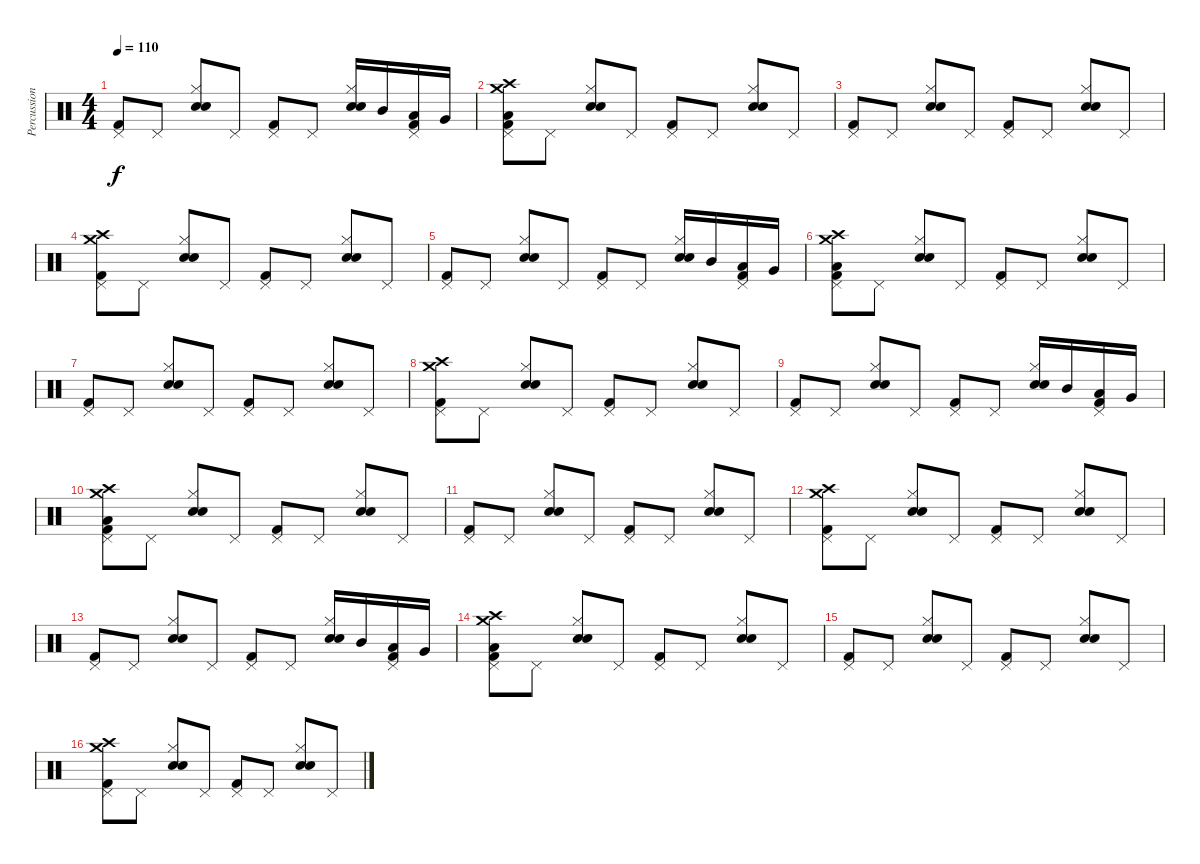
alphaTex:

\track ("Percussion" "Percussion") {instrument percussion}
\staff {score}
\articulation defaults
\ts (4 4)
\tempo 110
\clef neutral
\ks c
("Pedal Hi-Hat (hit)" "Kick (hit) 2").8{dy f} "Pedal Hi-Hat (hit)".8 ("Electric Snare (hit)" "Hi-Hat (closed)" "Snare (hit) 2").8 "Pedal Hi-Hat (hit)".8 ("Pedal Hi-Hat (hit)" "Kick (hit) 2").8 "Pedal Hi-Hat (hit)".8 ("Electric Snare (hit)" "Hi-Hat (closed)" "Snare (hit) 2").16 "Mid Tom (hit)".16 ("Low Tom (hit)" "Pedal Hi-Hat (hit)" "Kick (hit) 2").16 "Very Low Tom (hit)".16 |
("Low Floor Tom (hit)" "Crash medium (hit)" "Crash high (hit)" "Pedal Hi-Hat (hit)" "Kick (hit) 2").8 "Pedal Hi-Hat (hit)".8 ("Electric Snare (hit)" "Hi-Hat (closed)" "Snare (hit) 2").8 "Pedal Hi-Hat (hit)".8 ("Pedal Hi-Hat (hit)" "Kick (hit) 2").8 "Pedal Hi-Hat (hit)".8 ("Electric Snare (hit)" "Hi-Hat (closed)" "Snare (hit) 2").8 "Pedal Hi-Hat (hit)".8 |
("Pedal Hi-Hat (hit)" "Kick (hit) 2").8 "Pedal Hi-Hat (hit)".8 ("Electric Snare (hit)" "Hi-Hat (closed)" "Snare (hit) 2").8 "Pedal Hi-Hat (hit)".8 ("Pedal Hi-Hat (hit)" "Kick (hit) 2").8 "Pedal Hi-Hat (hit)".8 ("Electric Snare (hit)" "Hi-Hat (closed)" "Snare (hit) 2").8 "Pedal Hi-Hat (hit)".8 |
("Crash medium (hit)" "Crash high (hit)" "Pedal Hi-Hat (hit)" "Kick (hit) 2").8 "Pedal Hi-Hat (hit)".8 ("Electric Snare (hit)" "Hi-Hat (closed)" "Snare (hit) 2").8 "Pedal Hi-Hat (hit)".8 ("Pedal Hi-Hat (hit)" "Kick (hit) 2").8 "Pedal Hi-Hat (hit)".8 ("Electric Snare (hit)" "Hi-Hat (closed)" "Snare (hit) 2").8 "Pedal Hi-Hat (hit)".8 |
("Pedal Hi-Hat (hit)" "Kick (hit) 2").8 "Pedal Hi-Hat (hit)".8 ("Electric Snare (hit)" "Hi-Hat (closed)" "Snare (hit) 2").8 "Pedal Hi-Hat (hit)".8 ("Pedal Hi-Hat (hit)" "Kick (hit) 2").8 "Pedal Hi-Hat (hit)".8 ("Electric Snare (hit)" "Hi-Hat (closed)" "Snare (hit) 2").16 "Mid Tom (hit)".16 ("Low Tom (hit)" "Pedal Hi-Hat (hit)" "Kick (hit) 2").16 "Very Low Tom (hit)".16 |
("Low Floor Tom (hit)" "Crash medium (hit)" "Crash high (hit)" "Pedal Hi-Hat (hit)" "Kick (hit) 2").8 "Pedal Hi-Hat (hit)".8 ("Electric Snare (hit)" "Hi-Hat (closed)" "Snare (hit) 2").8 "Pedal Hi-Hat (hit)".8 ("Pedal Hi-Hat (hit)" "Kick (hit) 2").8 "Pedal Hi-Hat (hit)".8 ("Electric Snare (hit)" "Hi-Hat (closed)" "Snare (hit) 2").8 "Pedal Hi-Hat (hit)".8 |
("Pedal Hi-Hat (hit)" "Kick (hit) 2").8 "Pedal Hi-Hat (hit)".8 ("Electric Snare (hit)" "Hi-Hat (closed)" "Snare (hit) 2").8 "Pedal Hi-Hat (hit)".8 ("Pedal Hi-Hat (hit)" "Kick (hit) 2").8 "Pedal Hi-Hat (hit)".8 ("Electric Snare (hit)" "Hi-Hat (closed)" "Snare (hit) 2").8 "Pedal Hi-Hat (hit)".8 |
("Crash medium (hit)" "Crash high (hit)" "Pedal Hi-Hat (hit)" "Kick (hit) 2").8 "Pedal Hi-Hat (hit)".8 ("Electric Snare (hit)" "Hi-Hat (closed)" "Snare (hit) 2").8 "Pedal Hi-Hat (hit)".8 ("Pedal Hi-Hat (hit)" "Kick (hit) 2").8 "Pedal Hi-Hat (hit)".8 ("Electric Snare (hit)" "Hi-Hat (closed)" "Snare (hit) 2").8 "Pedal Hi-Hat (hit)".8 |
("Pedal Hi-Hat (hit)" "Kick (hit) 2").8 "Pedal Hi-Hat (hit)".8 ("Electric Snare (hit)" "Hi-Hat (closed)" "Snare (hit) 2").8 "Pedal Hi-Hat (hit)".8 ("Pedal Hi-Hat (hit)" "Kick (hit) 2").8 "Pedal Hi-Hat (hit)".8 ("Electric Snare (hit)" "Hi-Hat (closed)" "Snare (hit) 2").16 "Mid Tom (hit)".16 ("Low Tom (hit)" "Pedal Hi-Hat (hit)" "Kick (hit) 2").16 "Very Low Tom (hit)".16 |
("Low Floor Tom (hit)" "Crash medium (hit)" "Crash high (hit)" "Pedal Hi-Hat (hit)" "Kick (hit) 2").8 "Pedal Hi-Hat (hit)".8 ("Electric Snare (hit)" "Hi-Hat (closed)" "Snare (hit) 2").8 "Pedal Hi-Hat (hit)".8 ("Pedal Hi-Hat (hit)" "Kick (hit) 2").8 "Pedal Hi-Hat (hit)".8 ("Electric Snare (hit)" "Hi-Hat (closed)" "Snare (hit) 2").8 "Pedal Hi-Hat (hit)".8 |
("Pedal Hi-Hat (hit)" "Kick (hit) 2").8 "Pedal Hi-Hat (hit)".8 ("Electric Snare (hit)" "Hi-Hat (closed)" "Snare (hit) 2").8 "Pedal Hi-Hat (hit)".8 ("Pedal Hi-Hat (hit)" "Kick (hit) 2").8 "Pedal Hi-Hat (hit)".8 ("Electric Snare (hit)" "Hi-Hat (closed)" "Snare (hit) 2").8 "Pedal Hi-Hat (hit)".8 |
("Crash medium (hit)" "Crash high (hit)" "Pedal Hi-Hat (hit)" "Kick (hit) 2").8 "Pedal Hi-Hat (hit)".8 ("Electric Snare (hit)" "Hi-Hat (closed)" "Snare (hit) 2").8 "Pedal Hi-Hat (hit)".8 ("Pedal Hi-Hat (hit)" "Kick (hit) 2").8 "Pedal Hi-Hat (hit)".8 ("Electric Snare (hit)" "Hi-Hat (closed)" "Snare (hit) 2").8 "Pedal Hi-Hat (hit)".8 |
("Pedal Hi-Hat (hit)" "Kick (hit) 2").8 "Pedal Hi-Hat (hit)".8 ("Electric Snare (hit)" "Hi-Hat (closed)" "Snare (hit) 2").8 "Pedal Hi-Hat (hit)".8 ("Pedal Hi-Hat (hit)" "Kick (hit) 2").8 "Pedal Hi-Hat (hit)".8 ("Electric Snare (hit)" "Hi-Hat (closed)" "Snare (hit) 2").16 "Mid Tom (hit)".16 ("Low Tom (hit)" "Pedal Hi-Hat (hit)" "Kick (hit) 2").16 "Very Low Tom (hit)".16 |
("Low Floor Tom (hit)" "Crash medium (hit)" "Crash high (hit)" "Pedal Hi-Hat (hit)" "Kick (hit) 2").8 "Pedal Hi-Hat (hit)".8 ("Electric Snare (hit)" "Hi-Hat (closed)" "Snare (hit) 2").8 "Pedal Hi-Hat (hit)".8 ("Pedal Hi-Hat (hit)" "Kick (hit) 2").8 "Pedal Hi-Hat (hit)".8 ("Electric Snare (hit)" "Hi-Hat (closed)" "Snare (hit) 2").8 "Pedal Hi-Hat (hit)".8 |
("Pedal Hi-Hat (hit)" "Kick (hit) 2").8 "Pedal Hi-Hat (hit)".8 ("Electric Snare (hit)" "Hi-Hat (closed)" "Snare (hit) 2").8 "Pedal Hi-Hat (hit)".8 ("Pedal Hi-Hat (hit)" "Kick (hit) 2").8 "Pedal Hi-Hat (hit)".8 ("Electric Snare (hit)" "Hi-Hat (closed)" "Snare (hit) 2").8 "Pedal Hi-Hat (hit)".8 |
("Crash medium (hit)" "Crash high (hit)" "Pedal Hi-Hat (hit)" "Kick (hit) 2").8 "Pedal Hi-Hat (hit)".8 ("Electric Snare (hit)" "Hi-Hat (closed)" "Snare (hit) 2").8 "Pedal Hi-Hat (hit)".8 ("Pedal Hi-Hat (hit)" "Kick (hit) 2").8 "Pedal Hi-Hat (hit)".8 ("Electric Snare (hit)" "Hi-Hat (closed)" "Snare (hit) 2").8 "Pedal Hi-Hat (hit)".8
